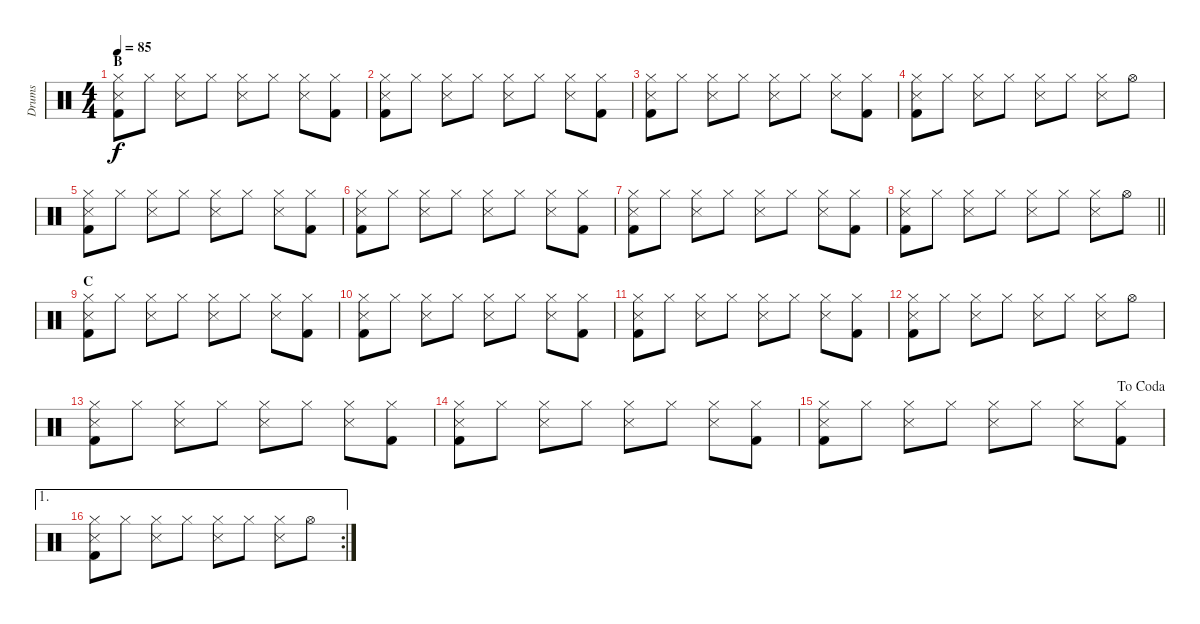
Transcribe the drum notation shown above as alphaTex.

\track ("Drums" "Drums") {instrument percussion}
\staff {score}
\articulation defaults
\ts (4 4)
\section ("" "B")
\tempo 85
\clef neutral
\ks c
("Hi-Hat (closed)" "Snare (side stick) 3" "Kick (hit) 2").8{dy f} "Hi-Hat (closed)".8 ("Hi-Hat (closed)" "Snare (side stick) 3").8 "Hi-Hat (closed)".8 ("Hi-Hat (closed)" "Snare (side stick) 3").8 "Hi-Hat (closed)".8 ("Hi-Hat (closed)" "Snare (side stick) 3").8 ("Hi-Hat (closed)" "Kick (hit) 2").8 |
("Hi-Hat (closed)" "Snare (side stick) 3" "Kick (hit) 2").8 "Hi-Hat (closed)".8 ("Hi-Hat (closed)" "Snare (side stick) 3").8 "Hi-Hat (closed)".8 ("Hi-Hat (closed)" "Snare (side stick) 3").8 "Hi-Hat (closed)".8 ("Hi-Hat (closed)" "Snare (side stick) 3").8 ("Hi-Hat (closed)" "Kick (hit) 2").8 |
("Hi-Hat (closed)" "Snare (side stick) 3" "Kick (hit) 2").8 "Hi-Hat (closed)".8 ("Hi-Hat (closed)" "Snare (side stick) 3").8 "Hi-Hat (closed)".8 ("Hi-Hat (closed)" "Snare (side stick) 3").8 "Hi-Hat (closed)".8 ("Hi-Hat (closed)" "Snare (side stick) 3").8 ("Hi-Hat (closed)" "Kick (hit) 2").8 |
("Hi-Hat (closed)" "Snare (side stick) 3" "Kick (hit) 2").8 "Hi-Hat (closed)".8 ("Hi-Hat (closed)" "Snare (side stick) 3").8 "Hi-Hat (closed)".8 ("Hi-Hat (closed)" "Snare (side stick) 3").8 "Hi-Hat (closed)".8 ("Hi-Hat (closed)" "Snare (side stick) 3").8 "Hi-Hat (open)".8 |
("Hi-Hat (closed)" "Snare (side stick) 3" "Kick (hit) 2").8 "Hi-Hat (closed)".8 ("Hi-Hat (closed)" "Snare (side stick) 3").8 "Hi-Hat (closed)".8 ("Hi-Hat (closed)" "Snare (side stick) 3").8 "Hi-Hat (closed)".8 ("Hi-Hat (closed)" "Snare (side stick) 3").8 ("Hi-Hat (closed)" "Kick (hit) 2").8 |
("Hi-Hat (closed)" "Snare (side stick) 3" "Kick (hit) 2").8 "Hi-Hat (closed)".8 ("Hi-Hat (closed)" "Snare (side stick) 3").8 "Hi-Hat (closed)".8 ("Hi-Hat (closed)" "Snare (side stick) 3").8 "Hi-Hat (closed)".8 ("Hi-Hat (closed)" "Snare (side stick) 3").8 ("Hi-Hat (closed)" "Kick (hit) 2").8 |
("Hi-Hat (closed)" "Snare (side stick) 3" "Kick (hit) 2").8 "Hi-Hat (closed)".8 ("Hi-Hat (closed)" "Snare (side stick) 3").8 "Hi-Hat (closed)".8 ("Hi-Hat (closed)" "Snare (side stick) 3").8 "Hi-Hat (closed)".8 ("Hi-Hat (closed)" "Snare (side stick) 3").8 ("Hi-Hat (closed)" "Kick (hit) 2").8 |
\barLineRight lightlight
("Hi-Hat (closed)" "Snare (side stick) 3" "Kick (hit) 2").8 "Hi-Hat (closed)".8 ("Hi-Hat (closed)" "Snare (side stick) 3").8 "Hi-Hat (closed)".8 ("Hi-Hat (closed)" "Snare (side stick) 3").8 "Hi-Hat (closed)".8 ("Hi-Hat (closed)" "Snare (side stick) 3").8 "Hi-Hat (open)".8 |
\section ("" "C")
("Hi-Hat (closed)" "Snare (side stick) 3" "Kick (hit) 2").8 "Hi-Hat (closed)".8 ("Hi-Hat (closed)" "Snare (side stick) 3").8 "Hi-Hat (closed)".8 ("Hi-Hat (closed)" "Snare (side stick) 3").8 "Hi-Hat (closed)".8 ("Hi-Hat (closed)" "Snare (side stick) 3").8 ("Hi-Hat (closed)" "Kick (hit) 2").8 |
("Hi-Hat (closed)" "Snare (side stick) 3" "Kick (hit) 2").8 "Hi-Hat (closed)".8 ("Hi-Hat (closed)" "Snare (side stick) 3").8 "Hi-Hat (closed)".8 ("Hi-Hat (closed)" "Snare (side stick) 3").8 "Hi-Hat (closed)".8 ("Hi-Hat (closed)" "Snare (side stick) 3").8 ("Hi-Hat (closed)" "Kick (hit) 2").8 |
("Hi-Hat (closed)" "Snare (side stick) 3" "Kick (hit) 2").8 "Hi-Hat (closed)".8 ("Hi-Hat (closed)" "Snare (side stick) 3").8 "Hi-Hat (closed)".8 ("Hi-Hat (closed)" "Snare (side stick) 3").8 "Hi-Hat (closed)".8 ("Hi-Hat (closed)" "Snare (side stick) 3").8 ("Hi-Hat (closed)" "Kick (hit) 2").8 |
("Hi-Hat (closed)" "Snare (side stick) 3" "Kick (hit) 2").8 "Hi-Hat (closed)".8 ("Hi-Hat (closed)" "Snare (side stick) 3").8 "Hi-Hat (closed)".8 ("Hi-Hat (closed)" "Snare (side stick) 3").8 "Hi-Hat (closed)".8 ("Hi-Hat (closed)" "Snare (side stick) 3").8 "Hi-Hat (open)".8 |
("Hi-Hat (closed)" "Snare (side stick) 3" "Kick (hit) 2").8 "Hi-Hat (closed)".8 ("Hi-Hat (closed)" "Snare (side stick) 3").8 "Hi-Hat (closed)".8 ("Hi-Hat (closed)" "Snare (side stick) 3").8 "Hi-Hat (closed)".8 ("Hi-Hat (closed)" "Snare (side stick) 3").8 ("Hi-Hat (closed)" "Kick (hit) 2").8 |
("Hi-Hat (closed)" "Snare (side stick) 3" "Kick (hit) 2").8 "Hi-Hat (closed)".8 ("Hi-Hat (closed)" "Snare (side stick) 3").8 "Hi-Hat (closed)".8 ("Hi-Hat (closed)" "Snare (side stick) 3").8 "Hi-Hat (closed)".8 ("Hi-Hat (closed)" "Snare (side stick) 3").8 ("Hi-Hat (closed)" "Kick (hit) 2").8 |
\jump dacoda
("Hi-Hat (closed)" "Snare (side stick) 3" "Kick (hit) 2").8 "Hi-Hat (closed)".8 ("Hi-Hat (closed)" "Snare (side stick) 3").8 "Hi-Hat (closed)".8 ("Hi-Hat (closed)" "Snare (side stick) 3").8 "Hi-Hat (closed)".8 ("Hi-Hat (closed)" "Snare (side stick) 3").8 ("Hi-Hat (closed)" "Kick (hit) 2").8 |
\ae 1
\rc 2
("Hi-Hat (closed)" "Snare (side stick) 3" "Kick (hit) 2").8 "Hi-Hat (closed)".8 ("Hi-Hat (closed)" "Snare (side stick) 3").8 "Hi-Hat (closed)".8 ("Hi-Hat (closed)" "Snare (side stick) 3").8 "Hi-Hat (closed)".8 ("Hi-Hat (closed)" "Snare (side stick) 3").8 "Hi-Hat (open)".8
